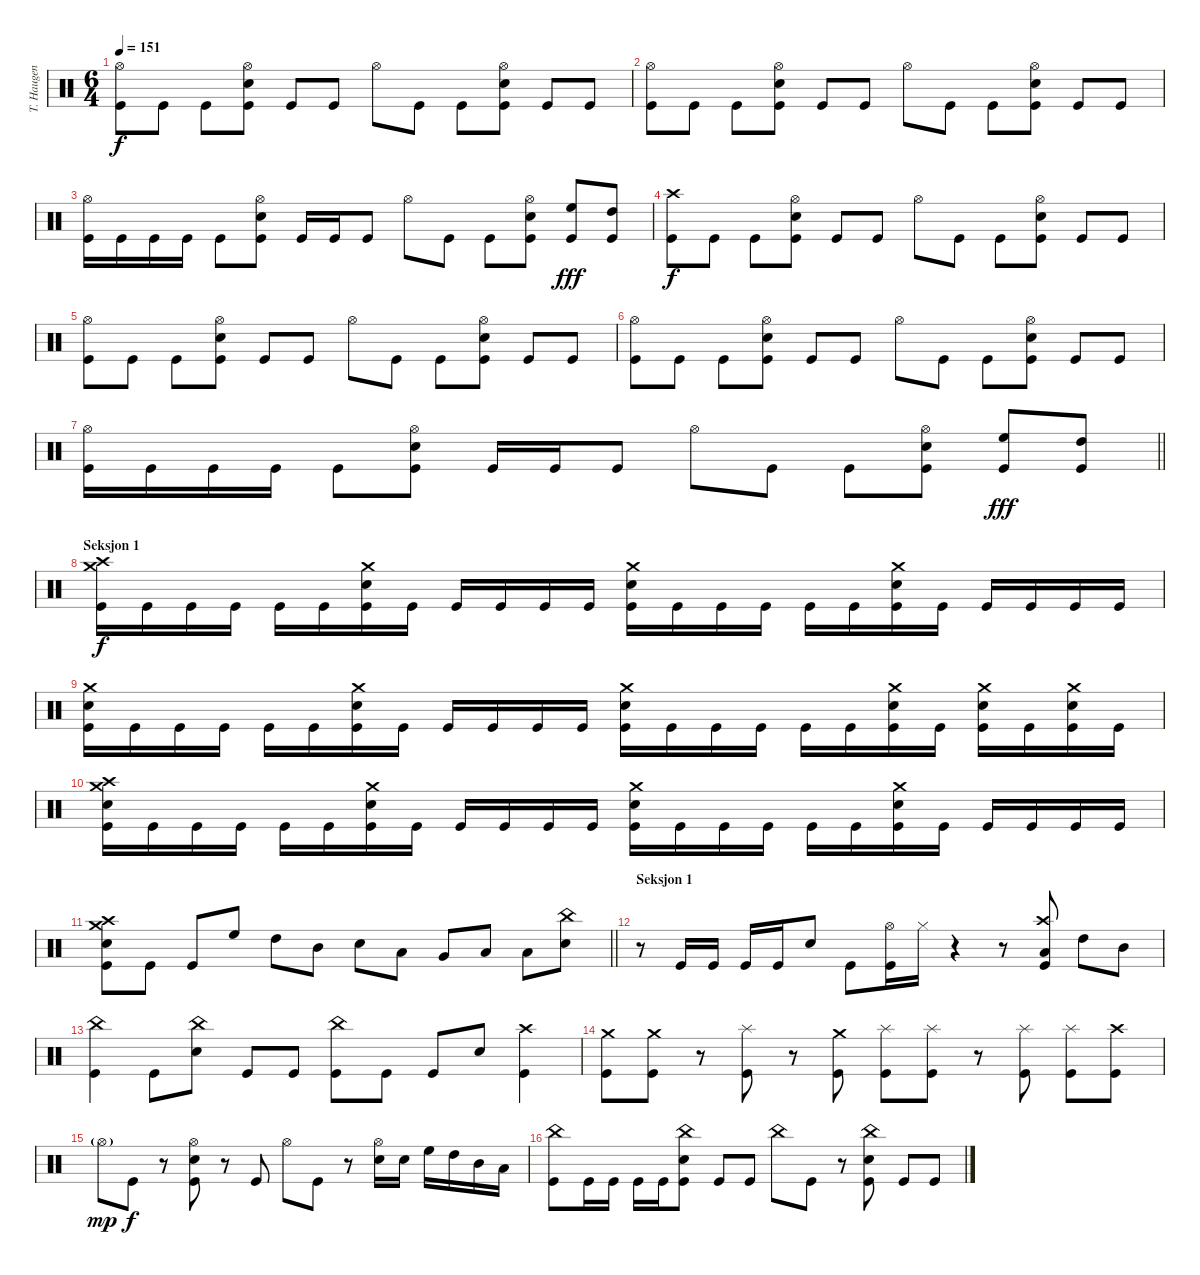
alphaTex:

\track ("T. Haugen" "T. Haugen") {instrument percussion}
\staff {score}
\articulation defaults
\ts (6 4)
\tempo 151
\clef neutral
\ks c
("Hi-Hat (open)" "Kick (hit)").8{dy f} "Kick (hit)".8 "Kick (hit)".8 ("Hi-Hat (open)" "Electric Snare (hit)" "Kick (hit)").8 "Kick (hit)".8 "Kick (hit)".8 "Hi-Hat (open)".8 "Kick (hit)".8 "Kick (hit)".8 ("Hi-Hat (open)" "Electric Snare (hit)" "Kick (hit)").8 "Kick (hit)".8 "Kick (hit)".8 |
("Hi-Hat (open)" "Kick (hit)").8 "Kick (hit)".8 "Kick (hit)".8 ("Hi-Hat (open)" "Electric Snare (hit)" "Kick (hit)").8 "Kick (hit)".8 "Kick (hit)".8 "Hi-Hat (open)".8 "Kick (hit)".8 "Kick (hit)".8 ("Hi-Hat (open)" "Electric Snare (hit)" "Kick (hit)").8 "Kick (hit)".8 "Kick (hit)".8 |
("Hi-Hat (open)" "Kick (hit)").16 "Kick (hit)".16 "Kick (hit)".16 "Kick (hit)".16 "Kick (hit)".8 ("Hi-Hat (open)" "Electric Snare (hit)" "Kick (hit)").8 "Kick (hit)".16 "Kick (hit)".16 "Kick (hit)".8 "Hi-Hat (open)".8 "Kick (hit)".8 "Kick (hit)".8 ("Hi-Hat (open)" "Electric Snare (hit)" "Kick (hit)").8 ("High Floor Tom (hit)" "Kick (hit)").8{dy fff} ("High Tom (hit)" "Kick (hit)").8 |
("Crash high (hit)" "Kick (hit)").8{dy f volume 16} "Kick (hit)".8 "Kick (hit)".8 ("Hi-Hat (open)" "Electric Snare (hit)" "Kick (hit)").8 "Kick (hit)".8 "Kick (hit)".8 "Hi-Hat (open)".8 "Kick (hit)".8 "Kick (hit)".8 ("Hi-Hat (open)" "Electric Snare (hit)" "Kick (hit)").8 "Kick (hit)".8 "Kick (hit)".8 |
("Hi-Hat (open)" "Kick (hit)").8 "Kick (hit)".8 "Kick (hit)".8 ("Hi-Hat (open)" "Electric Snare (hit)" "Kick (hit)").8 "Kick (hit)".8 "Kick (hit)".8 "Hi-Hat (open)".8 "Kick (hit)".8 "Kick (hit)".8 ("Hi-Hat (open)" "Electric Snare (hit)" "Kick (hit)").8 "Kick (hit)".8 "Kick (hit)".8 |
("Hi-Hat (open)" "Kick (hit)").8 "Kick (hit)".8 "Kick (hit)".8 ("Hi-Hat (open)" "Electric Snare (hit)" "Kick (hit)").8 "Kick (hit)".8 "Kick (hit)".8 "Hi-Hat (open)".8 "Kick (hit)".8 "Kick (hit)".8 ("Hi-Hat (open)" "Electric Snare (hit)" "Kick (hit)").8 "Kick (hit)".8 "Kick (hit)".8 |
\barLineRight lightlight
("Hi-Hat (open)" "Kick (hit)").16 "Kick (hit)".16 "Kick (hit)".16 "Kick (hit)".16 "Kick (hit)".8 ("Hi-Hat (open)" "Electric Snare (hit)" "Kick (hit)").8 "Kick (hit)".16 "Kick (hit)".16 "Kick (hit)".8 "Hi-Hat (open)".8 "Kick (hit)".8 "Kick (hit)".8 ("Hi-Hat (open)" "Electric Snare (hit)" "Kick (hit)").8 ("High Floor Tom (hit)" "Kick (hit)").8{dy fff} ("High Tom (hit)" "Kick (hit)").8 |
\section ("" "Seksjon 1")
("Crash high (hit)" "Crash medium (hit)" "Kick (hit)").16{dy f} "Kick (hit)".16 "Kick (hit)".16 "Kick (hit)".16 "Kick (hit)".16 "Kick (hit)".16 ("Crash medium (hit)" "Electric Snare (hit)" "Kick (hit)").16 "Kick (hit)".16 "Kick (hit)".16 "Kick (hit)".16 "Kick (hit)".16 "Kick (hit)".16 ("Crash medium (hit)" "Electric Snare (hit)" "Kick (hit)").16 "Kick (hit)".16 "Kick (hit)".16 "Kick (hit)".16 "Kick (hit)".16 "Kick (hit)".16 ("Crash medium (hit)" "Electric Snare (hit)" "Kick (hit)").16 "Kick (hit)".16 "Kick (hit)".16 "Kick (hit)".16 "Kick (hit)".16 "Kick (hit)".16 |
("Crash medium (hit)" "Electric Snare (hit)" "Kick (hit)").16 "Kick (hit)".16 "Kick (hit)".16 "Kick (hit)".16 "Kick (hit)".16 "Kick (hit)".16 ("Crash medium (hit)" "Electric Snare (hit)" "Kick (hit)").16 "Kick (hit)".16 "Kick (hit)".16 "Kick (hit)".16 "Kick (hit)".16 "Kick (hit)".16 ("Crash medium (hit)" "Electric Snare (hit)" "Kick (hit)").16 "Kick (hit)".16 "Kick (hit)".16 "Kick (hit)".16 "Kick (hit)".16 "Kick (hit)".16 ("Crash medium (hit)" "Electric Snare (hit)" "Kick (hit)").16 "Kick (hit)".16 ("Crash medium (hit)" "Electric Snare (hit)" "Kick (hit)").16 "Kick (hit)".16 ("Crash medium (hit)" "Electric Snare (hit)" "Kick (hit)").16 "Kick (hit)".16 |
("Crash high (hit)" "Crash medium (hit)" "Electric Snare (hit)" "Kick (hit)").16 "Kick (hit)".16 "Kick (hit)".16 "Kick (hit)".16 "Kick (hit)".16 "Kick (hit)".16 ("Crash medium (hit)" "Electric Snare (hit)" "Kick (hit)").16 "Kick (hit)".16 "Kick (hit)".16 "Kick (hit)".16 "Kick (hit)".16 "Kick (hit)".16 ("Crash medium (hit)" "Electric Snare (hit)" "Kick (hit)").16 "Kick (hit)".16 "Kick (hit)".16 "Kick (hit)".16 "Kick (hit)".16 "Kick (hit)".16 ("Crash medium (hit)" "Electric Snare (hit)" "Kick (hit)").16 "Kick (hit)".16 "Kick (hit)".16 "Kick (hit)".16 "Kick (hit)".16 "Kick (hit)".16 |
\barLineRight lightlight
("Crash high (hit)" "Crash medium (hit)" "Electric Snare (hit)" "Kick (hit)").8 "Kick (hit)".8 "Kick (hit)".8 "High Floor Tom (hit)".8 "High Tom (hit)".8 "Mid Tom (hit)".8 "Electric Snare (hit)".8 "Low Tom (hit)".8 "Very Low Tom (hit)".8 "Low Floor Tom (hit)".8 "Low Floor Tom (hit)".8 ("China (hit)" "Electric Snare (hit)").8 |
\section ("" "Seksjon 1")
r.8 "Kick (hit)".16 "Kick (hit)".16 "Kick (hit)".16 "Kick (hit)".16 "Electric Snare (hit)".8 "Kick (hit)".8 ("Hi-Hat (open)" "Kick (hit)").16 "Hi-Hat (closed)".16 r.4 r.8 ("Crash high (hit)" "Low Floor Tom (hit)" "Kick (hit)").8 "High Tom (hit)".8 "Mid Tom (hit)".8 |
("China (hit)" "Kick (hit)").4 "Kick (hit)".8 ("China (hit)" "Electric Snare (hit)").8 "Kick (hit)".8 "Kick (hit)".8 ("China (hit)" "Kick (hit)").8 "Kick (hit)".8 "Kick (hit)".8 "Electric Snare (hit)".8 ("Crash high (hit)" "Kick (hit)").4 |
("Crash medium (hit)" "Kick (hit)").8 ("Crash medium (hit)" "Kick (hit)").8 r.8 ("Splash (hit)" "Kick (hit)").8 r.8 ("Crash medium (hit)" "Kick (hit)").8 ("Splash (hit)" "Kick (hit)").8 ("Splash (hit)" "Kick (hit)").8 r.8 ("Splash (hit)" "Kick (hit)").8 ("Splash (hit)" "Kick (hit)").8 ("Crash high (hit)" "Kick (hit)").8 |
"Hi-Hat (open)"{g}.8{dy mp} "Kick (hit)".8{dy f} r.8 ("Hi-Hat (open)" "Electric Snare (hit)" "Kick (hit)").8 r.8 "Kick (hit)".8 "Hi-Hat (open)".8 "Kick (hit)".8 r.8 ("Hi-Hat (open)" "Electric Snare (hit)").16 "Electric Snare (hit)".16 "High Floor Tom (hit)".16 "High Tom (hit)".16 "Mid Tom (hit)".16 "Low Tom (hit)".16 |
("China (hit)" "Kick (hit)").8 "Kick (hit)".16 "Kick (hit)".16 "Kick (hit)".16 "Kick (hit)".16 ("China (hit)" "Electric Snare (hit)" "Kick (hit)").8 "Kick (hit)".8 "Kick (hit)".8 "China (hit)".8 "Kick (hit)".8 r.8 ("China (hit)" "Electric Snare (hit)" "Kick (hit)").8 "Kick (hit)".8 "Kick (hit)".8
